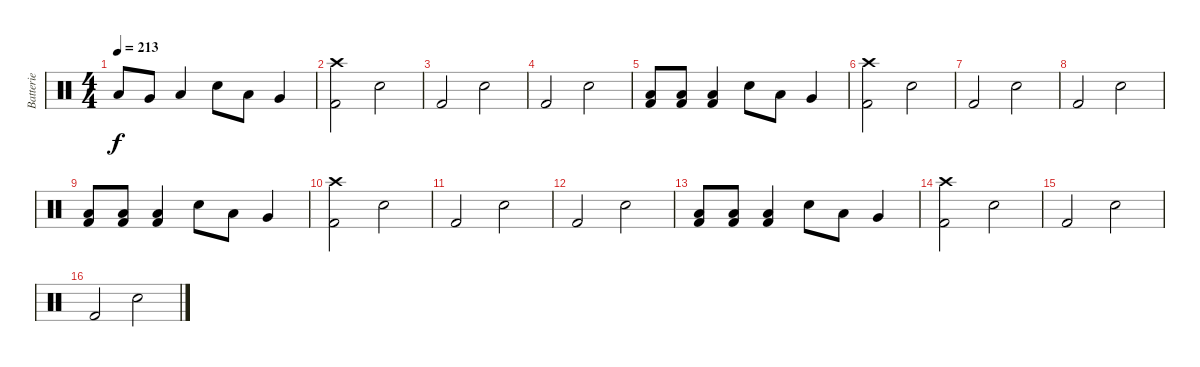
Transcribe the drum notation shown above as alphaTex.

\track ("Batterie" "Batterie") {instrument percussion}
\staff {score}
\articulation defaults
\ts (4 4)
\tempo 213
\clef neutral
\ks c "Low Tom (hit)".8{dy f} "Very Low Tom (hit)".8 "Low Floor Tom (hit)".4 "Electric Snare (hit)".8 "Low Tom (hit)".8 "Very Low Tom (hit)".4
|
("Crash high (hit)" "Kick (hit) 2").2 "Electric Snare (hit)".2 |
"Kick (hit) 2".2 "Electric Snare (hit)".2 |
"Kick (hit) 2".2 "Electric Snare (hit)".2 |
("Low Floor Tom (hit)" "Kick (hit) 2").8 ("Low Floor Tom (hit)" "Kick (hit) 2").8 ("Low Floor Tom (hit)" "Kick (hit) 2").4 "Electric Snare (hit)".8 "Low Tom (hit)".8 "Very Low Tom (hit)".4 |
("Crash high (hit)" "Kick (hit) 2").2 "Electric Snare (hit)".2 |
"Kick (hit) 2".2 "Electric Snare (hit)".2 |
"Kick (hit) 2".2 "Electric Snare (hit)".2 |
("Low Floor Tom (hit)" "Kick (hit) 2").8 ("Low Floor Tom (hit)" "Kick (hit) 2").8 ("Low Floor Tom (hit)" "Kick (hit) 2").4 "Electric Snare (hit)".8 "Low Tom (hit)".8 "Very Low Tom (hit)".4 |
("Crash high (hit)" "Kick (hit) 2").2 "Electric Snare (hit)".2 |
"Kick (hit) 2".2 "Electric Snare (hit)".2 |
"Kick (hit) 2".2 "Electric Snare (hit)".2 |
("Low Floor Tom (hit)" "Kick (hit) 2").8 ("Low Floor Tom (hit)" "Kick (hit) 2").8 ("Low Floor Tom (hit)" "Kick (hit) 2").4 "Electric Snare (hit)".8 "Low Tom (hit)".8 "Very Low Tom (hit)".4 |
("Crash high (hit)" "Kick (hit) 2").2 "Electric Snare (hit)".2 |
"Kick (hit) 2".2 "Electric Snare (hit)".2 |
"Kick (hit) 2".2 "Electric Snare (hit)".2
